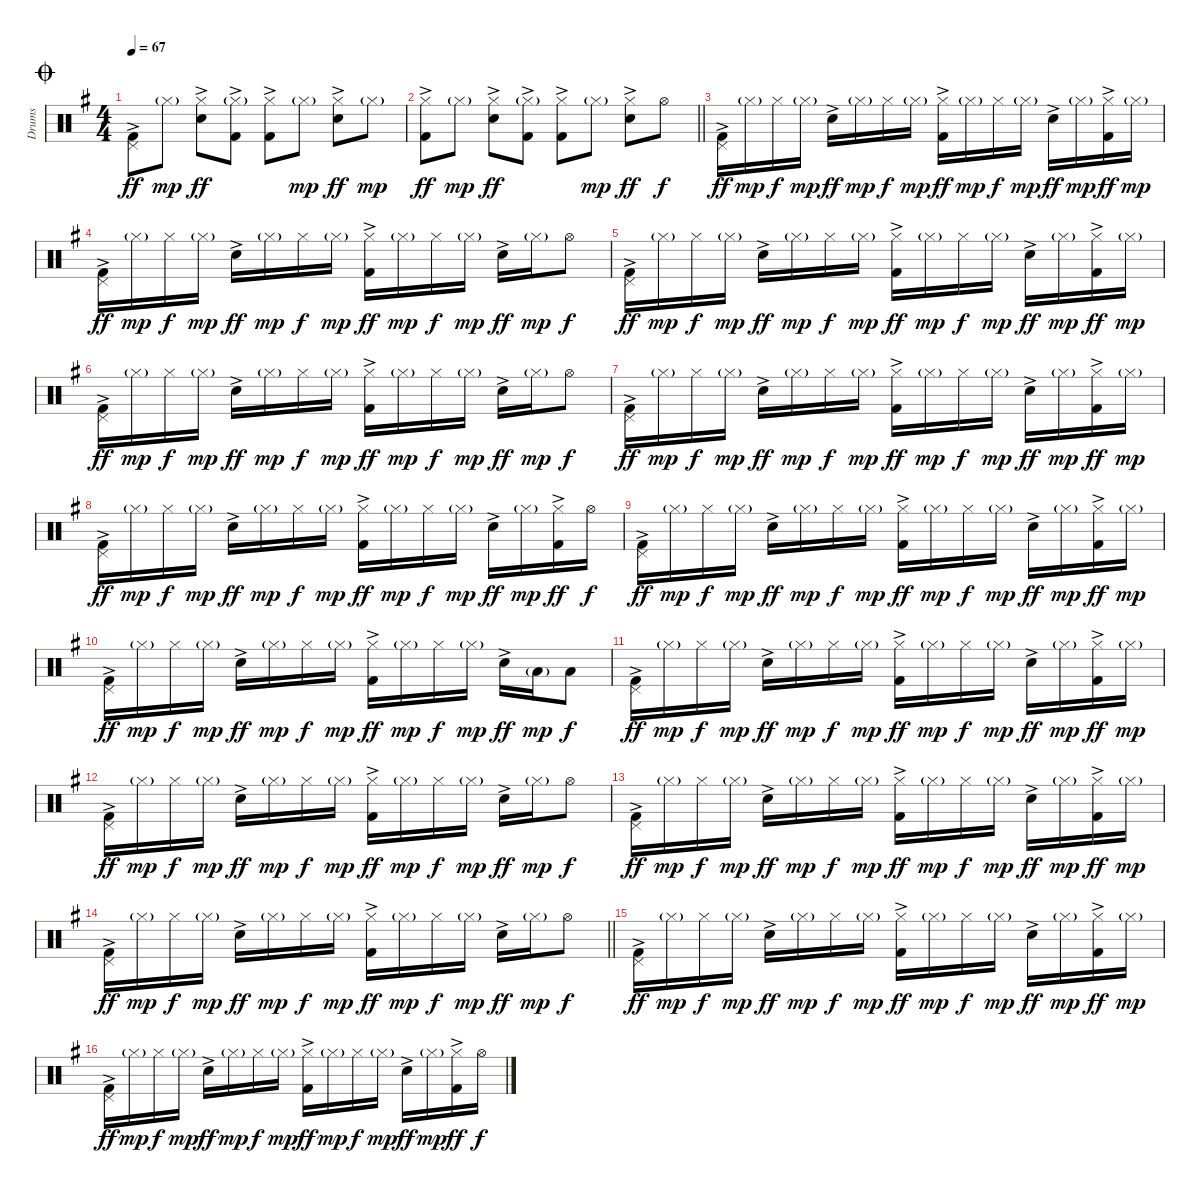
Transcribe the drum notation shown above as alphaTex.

\track ("Drums" "Drums") {instrument percussion}
\staff {score}
\articulation defaults
\ts (4 4)
\jump coda
\tempo 67
\clef neutral
\ks g
("Pedal Hi-Hat (hit)" "Kick (hit) 2"{ac}).8{dy ff} "Hi-Hat (closed)"{g}.8{dy mp} ("Hi-Hat (closed)" "Snare (hit) 2"{ac}).8{dy ff} ("Hi-Hat (closed)"{g} "Kick (hit) 2"{ac}).8 ("Hi-Hat (closed)" "Kick (hit) 2"{ac}).8 "Hi-Hat (closed)"{g}.8{dy mp} ("Hi-Hat (closed)" "Snare (hit) 2"{ac}).8{dy ff} "Hi-Hat (closed)"{g}.8{dy mp} |
\barLineRight lightlight
("Hi-Hat (closed)" "Kick (hit) 2"{ac}).8{dy ff} "Hi-Hat (closed)"{g}.8{dy mp} ("Hi-Hat (closed)" "Snare (hit) 2"{ac}).8{dy ff} ("Hi-Hat (closed)"{g} "Kick (hit) 2"{ac}).8 ("Hi-Hat (closed)" "Kick (hit) 2"{ac}).8 "Hi-Hat (closed)"{g}.8{dy mp} ("Hi-Hat (closed)" "Snare (hit) 2"{ac}).8{dy ff} "Hi-Hat (open)".8{dy f} |
("Pedal Hi-Hat (hit)" "Kick (hit) 2"{ac}).16{dy ff} "Hi-Hat (closed)"{g}.16{dy mp} "Hi-Hat (closed)".16{dy f} "Hi-Hat (closed)"{g}.16{dy mp} "Snare (hit) 2"{ac}.16{dy ff} "Hi-Hat (closed)"{g}.16{dy mp} "Hi-Hat (closed)".16{dy f} "Hi-Hat (closed)"{g}.16{dy mp} ("Hi-Hat (closed)" "Kick (hit) 2"{ac}).16{dy ff} "Hi-Hat (closed)"{g}.16{dy mp} "Hi-Hat (closed)".16{dy f} "Hi-Hat (closed)"{g}.16{dy mp} "Snare (hit) 2"{ac}.16{dy ff} "Hi-Hat (closed)"{g}.16{dy mp} ("Hi-Hat (closed)" "Kick (hit) 2"{ac}).16{dy ff} "Hi-Hat (closed)"{g}.16{dy mp} |
("Pedal Hi-Hat (hit)" "Kick (hit) 2"{ac}).16{dy ff} "Hi-Hat (closed)"{g}.16{dy mp} "Hi-Hat (closed)".16{dy f} "Hi-Hat (closed)"{g}.16{dy mp} "Snare (hit) 2"{ac}.16{dy ff} "Hi-Hat (closed)"{g}.16{dy mp} "Hi-Hat (closed)".16{dy f} "Hi-Hat (closed)"{g}.16{dy mp} ("Hi-Hat (closed)" "Kick (hit) 2"{ac}).16{dy ff} "Hi-Hat (closed)"{g}.16{dy mp} "Hi-Hat (closed)".16{dy f} "Hi-Hat (closed)"{g}.16{dy mp} "Snare (hit) 2"{ac}.16{dy ff} "Hi-Hat (closed)"{g}.16{dy mp} "Hi-Hat (open)".8{dy f} |
("Pedal Hi-Hat (hit)" "Kick (hit) 2"{ac}).16{dy ff} "Hi-Hat (closed)"{g}.16{dy mp} "Hi-Hat (closed)".16{dy f} "Hi-Hat (closed)"{g}.16{dy mp} "Snare (hit) 2"{ac}.16{dy ff} "Hi-Hat (closed)"{g}.16{dy mp} "Hi-Hat (closed)".16{dy f} "Hi-Hat (closed)"{g}.16{dy mp} ("Hi-Hat (closed)" "Kick (hit) 2"{ac}).16{dy ff} "Hi-Hat (closed)"{g}.16{dy mp} "Hi-Hat (closed)".16{dy f} "Hi-Hat (closed)"{g}.16{dy mp} "Snare (hit) 2"{ac}.16{dy ff} "Hi-Hat (closed)"{g}.16{dy mp} ("Hi-Hat (closed)" "Kick (hit) 2"{ac}).16{dy ff} "Hi-Hat (closed)"{g}.16{dy mp} |
("Pedal Hi-Hat (hit)" "Kick (hit) 2"{ac}).16{dy ff} "Hi-Hat (closed)"{g}.16{dy mp} "Hi-Hat (closed)".16{dy f} "Hi-Hat (closed)"{g}.16{dy mp} "Snare (hit) 2"{ac}.16{dy ff} "Hi-Hat (closed)"{g}.16{dy mp} "Hi-Hat (closed)".16{dy f} "Hi-Hat (closed)"{g}.16{dy mp} ("Hi-Hat (closed)" "Kick (hit) 2"{ac}).16{dy ff} "Hi-Hat (closed)"{g}.16{dy mp} "Hi-Hat (closed)".16{dy f} "Hi-Hat (closed)"{g}.16{dy mp} "Snare (hit) 2"{ac}.16{dy ff} "Hi-Hat (closed)"{g}.16{dy mp} "Hi-Hat (open)".8{dy f} |
("Pedal Hi-Hat (hit)" "Kick (hit) 2"{ac}).16{dy ff} "Hi-Hat (closed)"{g}.16{dy mp} "Hi-Hat (closed)".16{dy f} "Hi-Hat (closed)"{g}.16{dy mp} "Snare (hit) 2"{ac}.16{dy ff} "Hi-Hat (closed)"{g}.16{dy mp} "Hi-Hat (closed)".16{dy f} "Hi-Hat (closed)"{g}.16{dy mp} ("Hi-Hat (closed)" "Kick (hit) 2"{ac}).16{dy ff} "Hi-Hat (closed)"{g}.16{dy mp} "Hi-Hat (closed)".16{dy f} "Hi-Hat (closed)"{g}.16{dy mp} "Snare (hit) 2"{ac}.16{dy ff} "Hi-Hat (closed)"{g}.16{dy mp} ("Hi-Hat (closed)" "Kick (hit) 2"{ac}).16{dy ff} "Hi-Hat (closed)"{g}.16{dy mp} |
("Pedal Hi-Hat (hit)" "Kick (hit) 2"{ac}).16{dy ff} "Hi-Hat (closed)"{g}.16{dy mp} "Hi-Hat (closed)".16{dy f} "Hi-Hat (closed)"{g}.16{dy mp} "Snare (hit) 2"{ac}.16{dy ff} "Hi-Hat (closed)"{g}.16{dy mp} "Hi-Hat (closed)".16{dy f} "Hi-Hat (closed)"{g}.16{dy mp} ("Hi-Hat (closed)" "Kick (hit) 2"{ac}).16{dy ff} "Hi-Hat (closed)"{g}.16{dy mp} "Hi-Hat (closed)".16{dy f} "Hi-Hat (closed)"{g}.16{dy mp} "Snare (hit) 2"{ac}.16{dy ff} "Hi-Hat (closed)"{g}.16{dy mp} ("Hi-Hat (closed)" "Kick (hit) 2"{ac}).16{dy ff} "Hi-Hat (open)".16{dy f} |
("Pedal Hi-Hat (hit)" "Kick (hit) 2"{ac}).16{dy ff} "Hi-Hat (closed)"{g}.16{dy mp} "Hi-Hat (closed)".16{dy f} "Hi-Hat (closed)"{g}.16{dy mp} "Snare (hit) 2"{ac}.16{dy ff} "Hi-Hat (closed)"{g}.16{dy mp} "Hi-Hat (closed)".16{dy f} "Hi-Hat (closed)"{g}.16{dy mp} ("Hi-Hat (closed)" "Kick (hit) 2"{ac}).16{dy ff} "Hi-Hat (closed)"{g}.16{dy mp} "Hi-Hat (closed)".16{dy f} "Hi-Hat (closed)"{g}.16{dy mp} "Snare (hit) 2"{ac}.16{dy ff} "Hi-Hat (closed)"{g}.16{dy mp} ("Hi-Hat (closed)" "Kick (hit) 2"{ac}).16{dy ff} "Hi-Hat (closed)"{g}.16{dy mp} |
("Pedal Hi-Hat (hit)" "Kick (hit) 2"{ac}).16{dy ff} "Hi-Hat (closed)"{g}.16{dy mp} "Hi-Hat (closed)".16{dy f} "Hi-Hat (closed)"{g}.16{dy mp} "Snare (hit) 2"{ac}.16{dy ff} "Hi-Hat (closed)"{g}.16{dy mp} "Hi-Hat (closed)".16{dy f} "Hi-Hat (closed)"{g}.16{dy mp} ("Hi-Hat (closed)" "Kick (hit) 2"{ac}).16{dy ff} "Hi-Hat (closed)"{g}.16{dy mp} "Hi-Hat (closed)".16{dy f} "Hi-Hat (closed)"{g}.16{dy mp} "Snare (hit) 2"{ac}.16{dy ff} "Low Tom (hit)"{g}.16{dy mp} "Low Floor Tom (hit)".8{dy f} |
("Pedal Hi-Hat (hit)" "Kick (hit) 2"{ac}).16{dy ff} "Hi-Hat (closed)"{g}.16{dy mp} "Hi-Hat (closed)".16{dy f} "Hi-Hat (closed)"{g}.16{dy mp} "Snare (hit) 2"{ac}.16{dy ff} "Hi-Hat (closed)"{g}.16{dy mp} "Hi-Hat (closed)".16{dy f} "Hi-Hat (closed)"{g}.16{dy mp} ("Hi-Hat (closed)" "Kick (hit) 2"{ac}).16{dy ff} "Hi-Hat (closed)"{g}.16{dy mp} "Hi-Hat (closed)".16{dy f} "Hi-Hat (closed)"{g}.16{dy mp} "Snare (hit) 2"{ac}.16{dy ff} "Hi-Hat (closed)"{g}.16{dy mp} ("Hi-Hat (closed)" "Kick (hit) 2"{ac}).16{dy ff} "Hi-Hat (closed)"{g}.16{dy mp} |
("Pedal Hi-Hat (hit)" "Kick (hit) 2"{ac}).16{dy ff} "Hi-Hat (closed)"{g}.16{dy mp} "Hi-Hat (closed)".16{dy f} "Hi-Hat (closed)"{g}.16{dy mp} "Snare (hit) 2"{ac}.16{dy ff} "Hi-Hat (closed)"{g}.16{dy mp} "Hi-Hat (closed)".16{dy f} "Hi-Hat (closed)"{g}.16{dy mp} ("Hi-Hat (closed)" "Kick (hit) 2"{ac}).16{dy ff} "Hi-Hat (closed)"{g}.16{dy mp} "Hi-Hat (closed)".16{dy f} "Hi-Hat (closed)"{g}.16{dy mp} "Snare (hit) 2"{ac}.16{dy ff} "Hi-Hat (closed)"{g}.16{dy mp} "Hi-Hat (open)".8{dy f} |
("Pedal Hi-Hat (hit)" "Kick (hit) 2"{ac}).16{dy ff} "Hi-Hat (closed)"{g}.16{dy mp} "Hi-Hat (closed)".16{dy f} "Hi-Hat (closed)"{g}.16{dy mp} "Snare (hit) 2"{ac}.16{dy ff} "Hi-Hat (closed)"{g}.16{dy mp} "Hi-Hat (closed)".16{dy f} "Hi-Hat (closed)"{g}.16{dy mp} ("Hi-Hat (closed)" "Kick (hit) 2"{ac}).16{dy ff} "Hi-Hat (closed)"{g}.16{dy mp} "Hi-Hat (closed)".16{dy f} "Hi-Hat (closed)"{g}.16{dy mp} "Snare (hit) 2"{ac}.16{dy ff} "Hi-Hat (closed)"{g}.16{dy mp} ("Hi-Hat (closed)" "Kick (hit) 2"{ac}).16{dy ff} "Hi-Hat (closed)"{g}.16{dy mp} |
\barLineRight lightlight
("Pedal Hi-Hat (hit)" "Kick (hit) 2"{ac}).16{dy ff} "Hi-Hat (closed)"{g}.16{dy mp} "Hi-Hat (closed)".16{dy f} "Hi-Hat (closed)"{g}.16{dy mp} "Snare (hit) 2"{ac}.16{dy ff} "Hi-Hat (closed)"{g}.16{dy mp} "Hi-Hat (closed)".16{dy f} "Hi-Hat (closed)"{g}.16{dy mp} ("Hi-Hat (closed)" "Kick (hit) 2"{ac}).16{dy ff} "Hi-Hat (closed)"{g}.16{dy mp} "Hi-Hat (closed)".16{dy f} "Hi-Hat (closed)"{g}.16{dy mp} "Snare (hit) 2"{ac}.16{dy ff} "Hi-Hat (closed)"{g}.16{dy mp} "Hi-Hat (open)".8{dy f} |
("Pedal Hi-Hat (hit)" "Kick (hit) 2"{ac}).16{dy ff} "Hi-Hat (closed)"{g}.16{dy mp} "Hi-Hat (closed)".16{dy f} "Hi-Hat (closed)"{g}.16{dy mp} "Snare (hit) 2"{ac}.16{dy ff} "Hi-Hat (closed)"{g}.16{dy mp} "Hi-Hat (closed)".16{dy f} "Hi-Hat (closed)"{g}.16{dy mp} ("Hi-Hat (closed)" "Kick (hit) 2"{ac}).16{dy ff} "Hi-Hat (closed)"{g}.16{dy mp} "Hi-Hat (closed)".16{dy f} "Hi-Hat (closed)"{g}.16{dy mp} "Snare (hit) 2"{ac}.16{dy ff} "Hi-Hat (closed)"{g}.16{dy mp} ("Hi-Hat (closed)" "Kick (hit) 2"{ac}).16{dy ff} "Hi-Hat (closed)"{g}.16{dy mp} |
("Pedal Hi-Hat (hit)" "Kick (hit) 2"{ac}).16{dy ff} "Hi-Hat (closed)"{g}.16{dy mp} "Hi-Hat (closed)".16{dy f} "Hi-Hat (closed)"{g}.16{dy mp} "Snare (hit) 2"{ac}.16{dy ff} "Hi-Hat (closed)"{g}.16{dy mp} "Hi-Hat (closed)".16{dy f} "Hi-Hat (closed)"{g}.16{dy mp} ("Hi-Hat (closed)" "Kick (hit) 2"{ac}).16{dy ff} "Hi-Hat (closed)"{g}.16{dy mp} "Hi-Hat (closed)".16{dy f} "Hi-Hat (closed)"{g}.16{dy mp} "Snare (hit) 2"{ac}.16{dy ff} "Hi-Hat (closed)"{g}.16{dy mp} ("Hi-Hat (closed)" "Kick (hit) 2"{ac}).16{dy ff} "Hi-Hat (open)".16{dy f}
